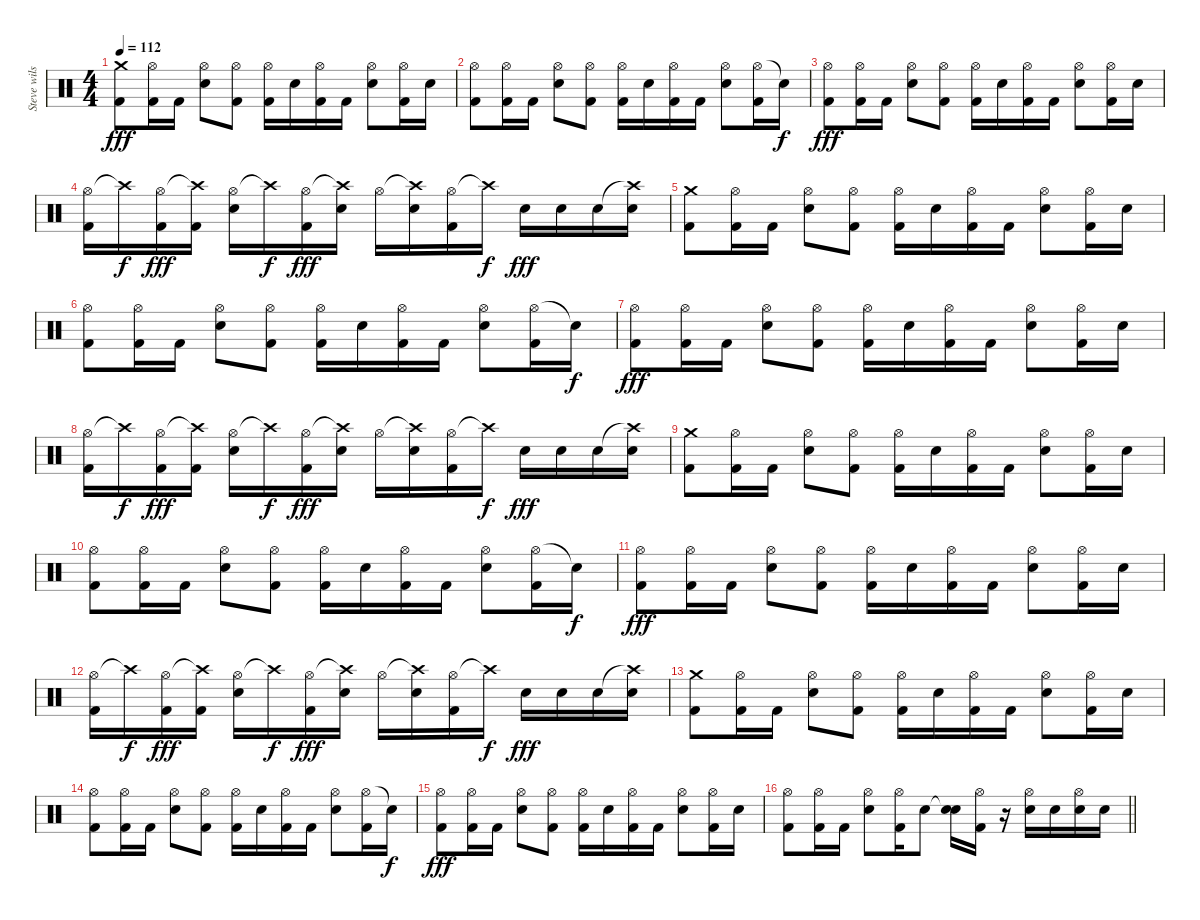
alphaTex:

\track ("Steve wilson" "Steve wils") {instrument percussion}
\staff {score}
\articulation defaults
\ts (4 4)
\tempo 112
\clef neutral
\ks c
("Crash medium (hit)" "Kick (hit) 2").8{dy fff} ("Hi-Hat (open)" "Kick (hit) 2").16 "Kick (hit) 2".16 ("Hi-Hat (open)" "Electric Snare (hit)").8 ("Hi-Hat (open)" "Kick (hit) 2").8 ("Hi-Hat (open)" "Kick (hit) 2").16 "Electric Snare (hit)".16 ("Hi-Hat (open)" "Kick (hit) 2").16 "Kick (hit) 2".16 ("Hi-Hat (open)" "Electric Snare (hit)").8 ("Hi-Hat (open)" "Kick (hit) 2").16 "Electric Snare (hit)".16 |
("Hi-Hat (open)" "Kick (hit) 2").8 ("Hi-Hat (open)" "Kick (hit) 2").16 "Kick (hit) 2".16 ("Hi-Hat (open)" "Electric Snare (hit)").8 ("Hi-Hat (open)" "Kick (hit) 2").8 ("Hi-Hat (open)" "Kick (hit) 2").16 "Electric Snare (hit)".16 ("Hi-Hat (open)" "Kick (hit) 2").16 "Kick (hit) 2".16 ("Hi-Hat (open)" "Electric Snare (hit)").8 ("Hi-Hat (open)" "Kick (hit) 2").16 "Snare (hit)"{t}.16{dy f} |
("Hi-Hat (open)" "Kick (hit) 2").8{dy fff} ("Hi-Hat (open)" "Kick (hit) 2").16 "Kick (hit) 2".16 ("Hi-Hat (open)" "Electric Snare (hit)").8 ("Hi-Hat (open)" "Kick (hit) 2").8 ("Hi-Hat (open)" "Kick (hit) 2").16 "Electric Snare (hit)".16 ("Hi-Hat (open)" "Kick (hit) 2").16 "Kick (hit) 2".16 ("Hi-Hat (open)" "Electric Snare (hit)").8 ("Hi-Hat (open)" "Kick (hit) 2").16 "Electric Snare (hit)".16 |
("Hi-Hat (open)" "Kick (hit) 2").16 "Crash high (hit)"{t}.16{dy f} ("Hi-Hat (open)" "Kick (hit) 2").16{dy fff} ("Crash high (hit)"{t} "Kick (hit) 2").16 ("Hi-Hat (open)" "Electric Snare (hit)").16 "Crash high (hit)"{t}.16{dy f} ("Hi-Hat (open)" "Kick (hit) 2").16{dy fff} ("Crash high (hit)"{t} "Electric Snare (hit)").16 "Hi-Hat (open)".16 ("Crash high (hit)"{t} "Electric Snare (hit)").16 ("Hi-Hat (open)" "Kick (hit) 2").16 "Crash high (hit)"{t}.16{dy f} "Electric Snare (hit)".16{dy fff} "Electric Snare (hit)".16 "Electric Snare (hit)".16 ("Crash high (hit)"{t} "Electric Snare (hit)").16 |
("Crash medium (hit)" "Kick (hit) 2").8 ("Hi-Hat (open)" "Kick (hit) 2").16 "Kick (hit) 2".16 ("Hi-Hat (open)" "Electric Snare (hit)").8 ("Hi-Hat (open)" "Kick (hit) 2").8 ("Hi-Hat (open)" "Kick (hit) 2").16 "Electric Snare (hit)".16 ("Hi-Hat (open)" "Kick (hit) 2").16 "Kick (hit) 2".16 ("Hi-Hat (open)" "Electric Snare (hit)").8 ("Hi-Hat (open)" "Kick (hit) 2").16 "Electric Snare (hit)".16 |
("Hi-Hat (open)" "Kick (hit) 2").8 ("Hi-Hat (open)" "Kick (hit) 2").16 "Kick (hit) 2".16 ("Hi-Hat (open)" "Electric Snare (hit)").8 ("Hi-Hat (open)" "Kick (hit) 2").8 ("Hi-Hat (open)" "Kick (hit) 2").16 "Electric Snare (hit)".16 ("Hi-Hat (open)" "Kick (hit) 2").16 "Kick (hit) 2".16 ("Hi-Hat (open)" "Electric Snare (hit)").8 ("Hi-Hat (open)" "Kick (hit) 2").16 "Snare (hit)"{t}.16{dy f} |
("Hi-Hat (open)" "Kick (hit) 2").8{dy fff} ("Hi-Hat (open)" "Kick (hit) 2").16 "Kick (hit) 2".16 ("Hi-Hat (open)" "Electric Snare (hit)").8 ("Hi-Hat (open)" "Kick (hit) 2").8 ("Hi-Hat (open)" "Kick (hit) 2").16 "Electric Snare (hit)".16 ("Hi-Hat (open)" "Kick (hit) 2").16 "Kick (hit) 2".16 ("Hi-Hat (open)" "Electric Snare (hit)").8 ("Hi-Hat (open)" "Kick (hit) 2").16 "Electric Snare (hit)".16 |
("Hi-Hat (open)" "Kick (hit) 2").16 "Crash high (hit)"{t}.16{dy f} ("Hi-Hat (open)" "Kick (hit) 2").16{dy fff} ("Crash high (hit)"{t} "Kick (hit) 2").16 ("Hi-Hat (open)" "Electric Snare (hit)").16 "Crash high (hit)"{t}.16{dy f} ("Hi-Hat (open)" "Kick (hit) 2").16{dy fff} ("Crash high (hit)"{t} "Electric Snare (hit)").16 "Hi-Hat (open)".16 ("Crash high (hit)"{t} "Electric Snare (hit)").16 ("Hi-Hat (open)" "Kick (hit) 2").16 "Crash high (hit)"{t}.16{dy f} "Electric Snare (hit)".16{dy fff} "Electric Snare (hit)".16 "Electric Snare (hit)".16 ("Crash high (hit)"{t} "Electric Snare (hit)").16 |
("Crash medium (hit)" "Kick (hit) 2").8 ("Hi-Hat (open)" "Kick (hit) 2").16 "Kick (hit) 2".16 ("Hi-Hat (open)" "Electric Snare (hit)").8 ("Hi-Hat (open)" "Kick (hit) 2").8 ("Hi-Hat (open)" "Kick (hit) 2").16 "Electric Snare (hit)".16 ("Hi-Hat (open)" "Kick (hit) 2").16 "Kick (hit) 2".16 ("Hi-Hat (open)" "Electric Snare (hit)").8 ("Hi-Hat (open)" "Kick (hit) 2").16 "Electric Snare (hit)".16 |
("Hi-Hat (open)" "Kick (hit) 2").8 ("Hi-Hat (open)" "Kick (hit) 2").16 "Kick (hit) 2".16 ("Hi-Hat (open)" "Electric Snare (hit)").8 ("Hi-Hat (open)" "Kick (hit) 2").8 ("Hi-Hat (open)" "Kick (hit) 2").16 "Electric Snare (hit)".16 ("Hi-Hat (open)" "Kick (hit) 2").16 "Kick (hit) 2".16 ("Hi-Hat (open)" "Electric Snare (hit)").8 ("Hi-Hat (open)" "Kick (hit) 2").16 "Snare (hit)"{t}.16{dy f} |
("Hi-Hat (open)" "Kick (hit) 2").8{dy fff} ("Hi-Hat (open)" "Kick (hit) 2").16 "Kick (hit) 2".16 ("Hi-Hat (open)" "Electric Snare (hit)").8 ("Hi-Hat (open)" "Kick (hit) 2").8 ("Hi-Hat (open)" "Kick (hit) 2").16 "Electric Snare (hit)".16 ("Hi-Hat (open)" "Kick (hit) 2").16 "Kick (hit) 2".16 ("Hi-Hat (open)" "Electric Snare (hit)").8 ("Hi-Hat (open)" "Kick (hit) 2").16 "Electric Snare (hit)".16 |
("Hi-Hat (open)" "Kick (hit) 2").16 "Crash high (hit)"{t}.16{dy f} ("Hi-Hat (open)" "Kick (hit) 2").16{dy fff} ("Crash high (hit)"{t} "Kick (hit) 2").16 ("Hi-Hat (open)" "Electric Snare (hit)").16 "Crash high (hit)"{t}.16{dy f} ("Hi-Hat (open)" "Kick (hit) 2").16{dy fff} ("Crash high (hit)"{t} "Electric Snare (hit)").16 "Hi-Hat (open)".16 ("Crash high (hit)"{t} "Electric Snare (hit)").16 ("Hi-Hat (open)" "Kick (hit) 2").16 "Crash high (hit)"{t}.16{dy f} "Electric Snare (hit)".16{dy fff} "Electric Snare (hit)".16 "Electric Snare (hit)".16 ("Crash high (hit)"{t} "Electric Snare (hit)").16 |
("Crash medium (hit)" "Kick (hit) 2").8 ("Hi-Hat (open)" "Kick (hit) 2").16 "Kick (hit) 2".16 ("Hi-Hat (open)" "Electric Snare (hit)").8 ("Hi-Hat (open)" "Kick (hit) 2").8 ("Hi-Hat (open)" "Kick (hit) 2").16 "Electric Snare (hit)".16 ("Hi-Hat (open)" "Kick (hit) 2").16 "Kick (hit) 2".16 ("Hi-Hat (open)" "Electric Snare (hit)").8 ("Hi-Hat (open)" "Kick (hit) 2").16 "Electric Snare (hit)".16 |
("Hi-Hat (open)" "Kick (hit) 2").8 ("Hi-Hat (open)" "Kick (hit) 2").16 "Kick (hit) 2".16 ("Hi-Hat (open)" "Electric Snare (hit)").8 ("Hi-Hat (open)" "Kick (hit) 2").8 ("Hi-Hat (open)" "Kick (hit) 2").16 "Electric Snare (hit)".16 ("Hi-Hat (open)" "Kick (hit) 2").16 "Kick (hit) 2".16 ("Hi-Hat (open)" "Electric Snare (hit)").8 ("Hi-Hat (open)" "Kick (hit) 2").16 "Snare (hit)"{t}.16{dy f} |
("Hi-Hat (open)" "Kick (hit) 2").8{dy fff} ("Hi-Hat (open)" "Kick (hit) 2").16 "Kick (hit) 2".16 ("Hi-Hat (open)" "Electric Snare (hit)").8 ("Hi-Hat (open)" "Kick (hit) 2").8 ("Hi-Hat (open)" "Kick (hit) 2").16 "Electric Snare (hit)".16 ("Hi-Hat (open)" "Kick (hit) 2").16 "Kick (hit) 2".16 ("Hi-Hat (open)" "Electric Snare (hit)").8 ("Hi-Hat (open)" "Kick (hit) 2").16 "Electric Snare (hit)".16 |
\barLineRight lightlight
("Hi-Hat (open)" "Kick (hit) 2").8 ("Hi-Hat (open)" "Kick (hit) 2").16 "Kick (hit) 2".16 ("Hi-Hat (open)" "Electric Snare (hit)").8 ("Hi-Hat (open)" "Kick (hit) 2").16 "Electric Snare (hit)".8 ("Snare (hit)"{t} "Electric Snare (hit)").16 ("Hi-Hat (open)" "Kick (hit) 2").16 r.16 ("Hi-Hat (open)" "Electric Snare (hit)").16 "Electric Snare (hit)".16 ("Hi-Hat (open)" "Electric Snare (hit)").16 "Electric Snare (hit)".16
